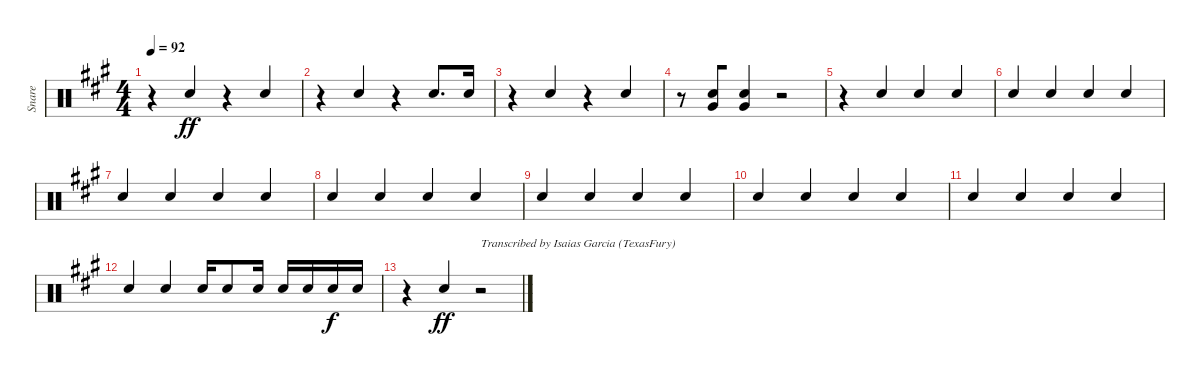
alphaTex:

\track ("Snare" "Snare") {instrument percussion}
\staff {score}
\articulation defaults
\ts (4 4)
\tempo 92
\clef neutral
\ks f#minor
r.4{dy ff} "Electric Snare (hit)".4{beam Up} r.4{beam merge} "Electric Snare (hit)".4{beam Up} |
r.4 "Electric Snare (hit)".4{beam Up} r.4{beam merge} "Electric Snare (hit)".8{d beam Up} "Electric Snare (hit)".16{beam Up} |
r.4 "Electric Snare (hit)".4{beam Up} r.4{beam merge} "Electric Snare (hit)".4{beam Up} |
r.8 ("Electric Snare (hit)" "Very Low Tom (hit)").8{beam merge} ("Electric Snare (hit)" "Very Low Tom (hit)").4 r.2 |
r.4 "Electric Snare (hit)".4{beam Up} "Electric Snare (hit)".4{beam Up beam merge} "Electric Snare (hit)".4{beam Up} |
"Electric Snare (hit)".4{beam Up} "Electric Snare (hit)".4{beam Up} "Electric Snare (hit)".4{beam Up beam merge} "Electric Snare (hit)".4{beam Up} |
"Electric Snare (hit)".4{beam Up} "Electric Snare (hit)".4{beam Up} "Electric Snare (hit)".4{beam Up beam merge} "Electric Snare (hit)".4{beam Up} |
"Electric Snare (hit)".4{beam Up} "Electric Snare (hit)".4{beam Up} "Electric Snare (hit)".4{beam Up beam merge} "Electric Snare (hit)".4{beam Up} |
"Electric Snare (hit)".4{beam Up} "Electric Snare (hit)".4{beam Up} "Electric Snare (hit)".4{beam Up beam merge} "Electric Snare (hit)".4{beam Up} |
"Electric Snare (hit)".4{beam Up} "Electric Snare (hit)".4{beam Up} "Electric Snare (hit)".4{beam Up beam merge} "Electric Snare (hit)".4{beam Up} |
"Electric Snare (hit)".4{beam Up} "Electric Snare (hit)".4{beam Up} "Electric Snare (hit)".4{beam Up beam merge} "Electric Snare (hit)".4{beam Up} |
"Electric Snare (hit)".4{beam Up} "Electric Snare (hit)".4{beam Up} "Electric Snare (hit)".16{beam Up} "Electric Snare (hit)".8{beam Up} "Electric Snare (hit)".16{beam Up} "Electric Snare (hit)".16{beam Up} "Electric Snare (hit)".16{beam Up} "Electric Snare (hit)".16{dy f beam Up} "Electric Snare (hit)".16{beam Up} |
r.4 "Electric Snare (hit)".4{dy ff beam Up} r.2{txt "Transcribed by Isaias Garcia (TexasFury)"}
